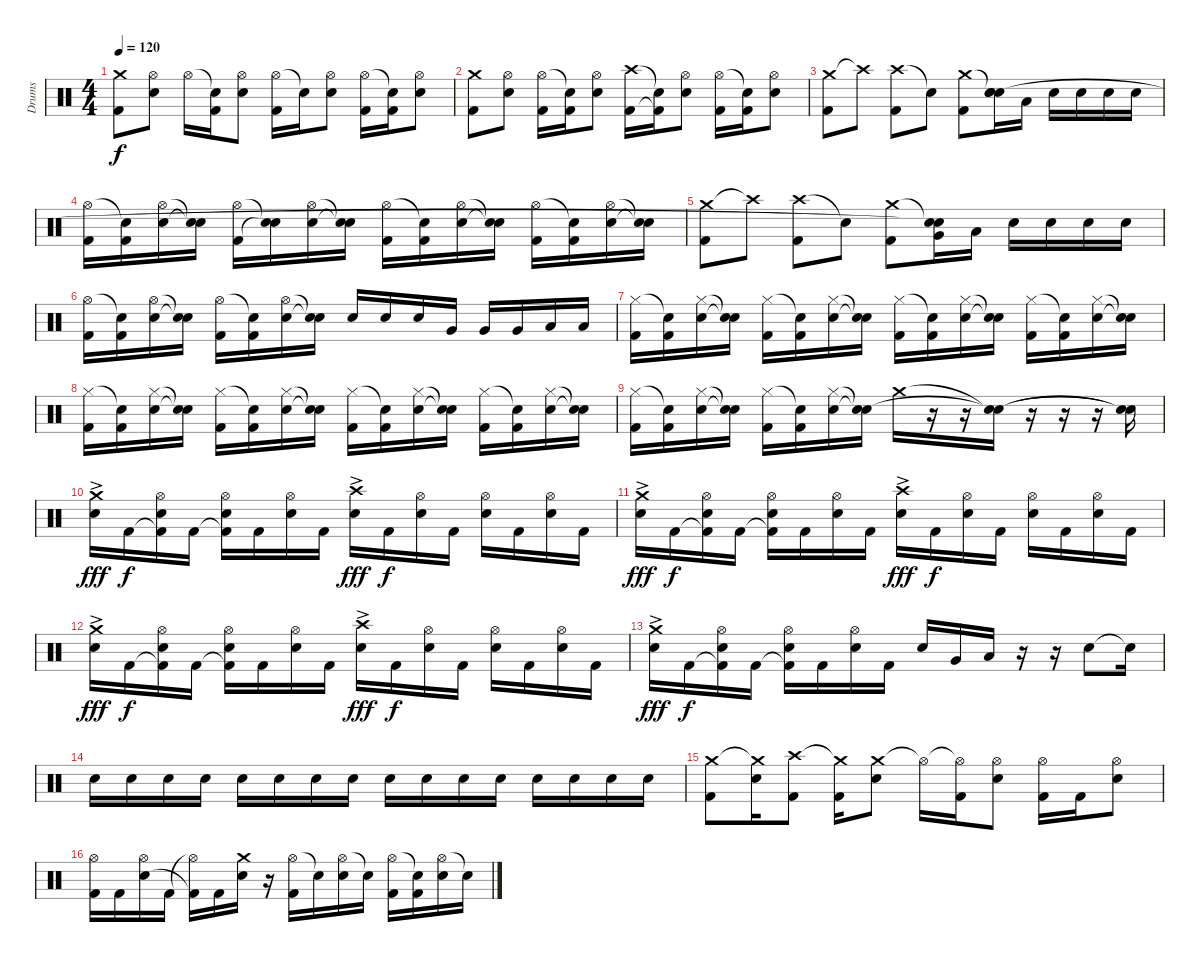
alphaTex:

\track ("Drums" "Drums") {instrument percussion}
\staff {score}
\articulation defaults
\ts (4 4)
\tempo 120
\clef neutral
\ks c
("Crash medium (hit)" "Kick (hit) 2").8{dy f} ("Hi-Hat (open)" "Electric Snare (hit)").8 "Hi-Hat (open)".16 ("Snare (hit)"{t} "Kick (hit) 2").16 ("Hi-Hat (open)" "Electric Snare (hit)").8 ("Hi-Hat (open)" "Kick (hit) 2").16 "Snare (hit)"{t}.16 ("Hi-Hat (open)" "Electric Snare (hit)").8 ("Hi-Hat (open)" "Kick (hit) 2").16 ("Snare (hit)"{t} "Kick (hit) 2").16 ("Hi-Hat (open)" "Electric Snare (hit)").8 |
("Crash medium (hit)" "Kick (hit) 2").8 ("Hi-Hat (open)" "Electric Snare (hit)").8 ("Hi-Hat (open)" "Kick (hit) 2").16 ("Snare (hit)"{t} "Kick (hit) 2").16 ("Hi-Hat (open)" "Electric Snare (hit)").8 ("Crash high (hit)" "Kick (hit) 2").16 ("Snare (hit)"{t} "Kick (hit) 2"{t}).16 ("Hi-Hat (open)" "Electric Snare (hit)").8 ("Hi-Hat (open)" "Kick (hit) 2").16 ("Snare (hit)"{t} "Kick (hit) 2").16 ("Hi-Hat (open)" "Electric Snare (hit)").8 |
("Crash medium (hit)" "Kick (hit) 2").8 "Crash high (hit)"{t}.8 ("Crash high (hit)" "Kick (hit) 2").8 "Snare (hit)"{t}.8 ("Crash medium (hit)" "Kick (hit) 2").8 ("Snare (hit)"{t} "Electric Snare (hit)" "Snare (hit)").16 "Low Tom (hit)".16 "Electric Snare (hit)".16 "Electric Snare (hit)".16 "Electric Snare (hit)".16 "Electric Snare (hit)".16 |
("Hi-Hat (open)" "Kick (hit) 2").16 ("Snare (hit)"{t} "Kick (hit) 2").16 ("Hi-Hat (open)" "Electric Snare (hit)").16 ("Snare (hit)"{t} "Snare (hit)"{t}).16 ("Hi-Hat (open)" "Kick (hit) 2").16 ("Snare (hit)"{t} "Snare (hit)"{t}).16 ("Hi-Hat (open)" "Electric Snare (hit)").16 ("Snare (hit)"{t} "Snare (hit)"{t}).16 ("Hi-Hat (open)" "Kick (hit) 2").16 ("Snare (hit)"{t} "Kick (hit) 2").16 ("Hi-Hat (open)" "Electric Snare (hit)").16 ("Snare (hit)"{t} "Snare (hit)"{t}).16 ("Hi-Hat (open)" "Kick (hit) 2").16 ("Snare (hit)"{t} "Kick (hit) 2").16 ("Hi-Hat (open)" "Electric Snare (hit)").16 ("Snare (hit)"{t} "Snare (hit)"{t}).16 |
("Crash medium (hit)" "Kick (hit) 2").8 "Crash high (hit)"{t}.8 ("Crash high (hit)" "Kick (hit) 2").8 "Snare (hit)"{t}.8 ("Crash medium (hit)" "Kick (hit) 2").8 ("Snare (hit)"{t} "Very Low Tom (hit)" "Snare (hit)"{t}).16 "Low Tom (hit)".16 "Electric Snare (hit)".16 "Electric Snare (hit)".16 "Electric Snare (hit)".16 "Electric Snare (hit)".16 |
("Hi-Hat (open)" "Kick (hit) 2").16 ("Snare (hit)"{t} "Kick (hit) 2").16 ("Hi-Hat (open)" "Electric Snare (hit)").16 ("Snare (hit)"{t} "Snare (hit)"{t}).16 ("Hi-Hat (open)" "Kick (hit) 2").16 ("Snare (hit)"{t} "Kick (hit) 2").16 ("Hi-Hat (open)" "Electric Snare (hit)").16 ("Snare (hit)"{t} "Snare (hit)"{t}).16 "Electric Snare (hit)".16 "Electric Snare (hit)".16 "Electric Snare (hit)".16 "Very Low Tom (hit)".16 "Very Low Tom (hit)".16 "Very Low Tom (hit)".16 "Low Floor Tom (hit)".16 "Low Floor Tom (hit)".16 |
("Hi-Hat (closed)" "Kick (hit) 2").16 ("Snare (hit)"{t} "Kick (hit) 2").16 ("Hi-Hat (closed)" "Electric Snare (hit)").16 ("Snare (hit)"{t} "Snare (hit)"{t}).16 ("Hi-Hat (closed)" "Kick (hit) 2").16 ("Snare (hit)"{t} "Kick (hit) 2").16 ("Hi-Hat (closed)" "Electric Snare (hit)").16 ("Snare (hit)"{t} "Snare (hit)"{t}).16 ("Hi-Hat (closed)" "Kick (hit) 2").16 ("Snare (hit)"{t} "Kick (hit) 2").16 ("Hi-Hat (closed)" "Electric Snare (hit)").16 ("Snare (hit)"{t} "Snare (hit)"{t}).16 ("Hi-Hat (closed)" "Kick (hit) 2").16 ("Snare (hit)"{t} "Kick (hit) 2").16 ("Hi-Hat (closed)" "Electric Snare (hit)").16 ("Snare (hit)"{t} "Snare (hit)"{t}).16 |
("Hi-Hat (closed)" "Kick (hit) 2").16 ("Snare (hit)"{t} "Kick (hit) 2").16 ("Hi-Hat (closed)" "Electric Snare (hit)").16 ("Snare (hit)"{t} "Snare (hit)"{t}).16 ("Hi-Hat (closed)" "Kick (hit) 2").16 ("Snare (hit)"{t} "Kick (hit) 2").16 ("Hi-Hat (closed)" "Electric Snare (hit)").16 ("Snare (hit)"{t} "Snare (hit)"{t}).16 ("Hi-Hat (closed)" "Kick (hit) 2").16 ("Snare (hit)"{t} "Kick (hit) 2").16 ("Hi-Hat (closed)" "Electric Snare (hit)").16 ("Snare (hit)"{t} "Snare (hit)"{t}).16 ("Hi-Hat (closed)" "Kick (hit) 2").16 ("Snare (hit)"{t} "Kick (hit) 2").16 ("Hi-Hat (closed)" "Electric Snare (hit)").16 ("Snare (hit)"{t} "Snare (hit)"{t}).16 |
("Hi-Hat (closed)" "Kick (hit) 2").16 ("Snare (hit)"{t} "Kick (hit) 2").16 ("Hi-Hat (closed)" "Electric Snare (hit)").16 ("Snare (hit)"{t} "Snare (hit)"{t}).16 ("Hi-Hat (closed)" "Kick (hit) 2").16 ("Snare (hit)"{t} "Kick (hit) 2").16 ("Hi-Hat (closed)" "Electric Snare (hit)").16 ("Snare (hit)"{t} "Snare (hit)"{t}).16 "Crash medium (hit)".16 r.16 r.16 ("Snare (hit)"{t} "Snare (hit)"{t}).16 r.16 r.16 r.16 ("Snare (hit)"{t} "Snare (hit)"{t}).16 |
("Electric Snare (hit)"{ac} "Crash medium (hit)").16{dy fff} "Kick (hit) 2".16{dy f} ("Kick (hit) 2"{t} "Hi-Hat (open)" "Electric Snare (hit)").16 "Kick (hit) 2".16 ("Kick (hit) 2"{t} "Hi-Hat (open)" "Electric Snare (hit)").16 "Kick (hit) 2".16 ("Hi-Hat (open)" "Electric Snare (hit)").16 "Kick (hit) 2".16 ("Electric Snare (hit)"{ac} "Crash high (hit)").16{dy fff} "Kick (hit) 2".16{dy f} ("Hi-Hat (open)" "Electric Snare (hit)").16 "Kick (hit) 2".16 ("Hi-Hat (open)" "Electric Snare (hit)").16 "Kick (hit) 2".16 ("Hi-Hat (open)" "Electric Snare (hit)").16 "Kick (hit) 2".16 |
("Electric Snare (hit)"{ac} "Crash medium (hit)").16{dy fff} "Kick (hit) 2".16{dy f} ("Kick (hit) 2"{t} "Hi-Hat (open)" "Electric Snare (hit)").16 "Kick (hit) 2".16 ("Kick (hit) 2"{t} "Hi-Hat (open)" "Electric Snare (hit)").16 "Kick (hit) 2".16 ("Hi-Hat (open)" "Electric Snare (hit)").16 "Kick (hit) 2".16 ("Electric Snare (hit)"{ac} "Crash high (hit)").16{dy fff} "Kick (hit) 2".16{dy f} ("Hi-Hat (open)" "Electric Snare (hit)").16 "Kick (hit) 2".16 ("Hi-Hat (open)" "Electric Snare (hit)").16 "Kick (hit) 2".16 ("Hi-Hat (open)" "Electric Snare (hit)").16 "Kick (hit) 2".16 |
("Electric Snare (hit)"{ac} "Crash medium (hit)").16{dy fff} "Kick (hit) 2".16{dy f} ("Kick (hit) 2"{t} "Hi-Hat (open)" "Electric Snare (hit)").16 "Kick (hit) 2".16 ("Kick (hit) 2"{t} "Hi-Hat (open)" "Electric Snare (hit)").16 "Kick (hit) 2".16 ("Hi-Hat (open)" "Electric Snare (hit)").16 "Kick (hit) 2".16 ("Electric Snare (hit)"{ac} "Crash high (hit)").16{dy fff} "Kick (hit) 2".16{dy f} ("Hi-Hat (open)" "Electric Snare (hit)").16 "Kick (hit) 2".16 ("Hi-Hat (open)" "Electric Snare (hit)").16 "Kick (hit) 2".16 ("Hi-Hat (open)" "Electric Snare (hit)").16 "Kick (hit) 2".16 |
("Electric Snare (hit)"{ac} "Crash medium (hit)").16{dy fff} "Kick (hit) 2".16{dy f} ("Kick (hit) 2"{t} "Hi-Hat (open)" "Electric Snare (hit)").16 "Kick (hit) 2".16 ("Kick (hit) 2"{t} "Hi-Hat (open)" "Electric Snare (hit)").16 "Kick (hit) 2".16 ("Hi-Hat (open)" "Electric Snare (hit)").16 "Kick (hit) 2".16 "Electric Snare (hit)".16 "Very Low Tom (hit)".16 "Low Tom (hit)".16 r.16 r.16 "Electric Snare (hit)".8 "Snare (hit)"{t}.16 |
"Electric Snare (hit)".16 "Electric Snare (hit)".16 "Electric Snare (hit)".16 "Electric Snare (hit)".16 "Electric Snare (hit)".16 "Electric Snare (hit)".16 "Electric Snare (hit)".16 "Electric Snare (hit)".16 "Electric Snare (hit)".16 "Electric Snare (hit)".16 "Electric Snare (hit)".16 "Electric Snare (hit)".16 "Electric Snare (hit)".16 "Electric Snare (hit)".16 "Electric Snare (hit)".16 "Electric Snare (hit)".16 |
("Crash medium (hit)" "Kick (hit) 2").8 ("Crash medium (hit)"{t} "Electric Snare (hit)").16 ("Crash high (hit)" "Kick (hit) 2").8 ("Crash medium (hit)"{t} "Kick (hit) 2").16 ("Crash medium (hit)" "Electric Snare (hit)").8 "Hi-Hat (open)"{t}.16 ("Hi-Hat (open)"{t} "Kick (hit) 2").16 ("Hi-Hat (open)" "Electric Snare (hit)").8 ("Hi-Hat (open)" "Kick (hit) 2").16 "Kick (hit) 2".16 ("Hi-Hat (open)" "Electric Snare (hit)").8 |
("Hi-Hat (open)" "Kick (hit) 2").16 "Kick (hit) 2".16 ("Hi-Hat (open)" "Electric Snare (hit)").16 "Kick (hit) 2".16 ("Hi-Hat (open)"{t} "Kick (hit) 2"{t}).16 "Kick (hit) 2".16 ("Crash medium (hit)" "Electric Snare (hit)").16 r.16 ("Hi-Hat (open)" "Kick (hit) 2").16 "Snare (hit)"{t}.16 ("Hi-Hat (open)" "Electric Snare (hit)").16 "Snare (hit)"{t}.16 ("Hi-Hat (open)" "Kick (hit) 2").16 ("Snare (hit)"{t} "Kick (hit) 2").16 ("Hi-Hat (open)" "Electric Snare (hit)").16 "Snare (hit)"{t}.16
